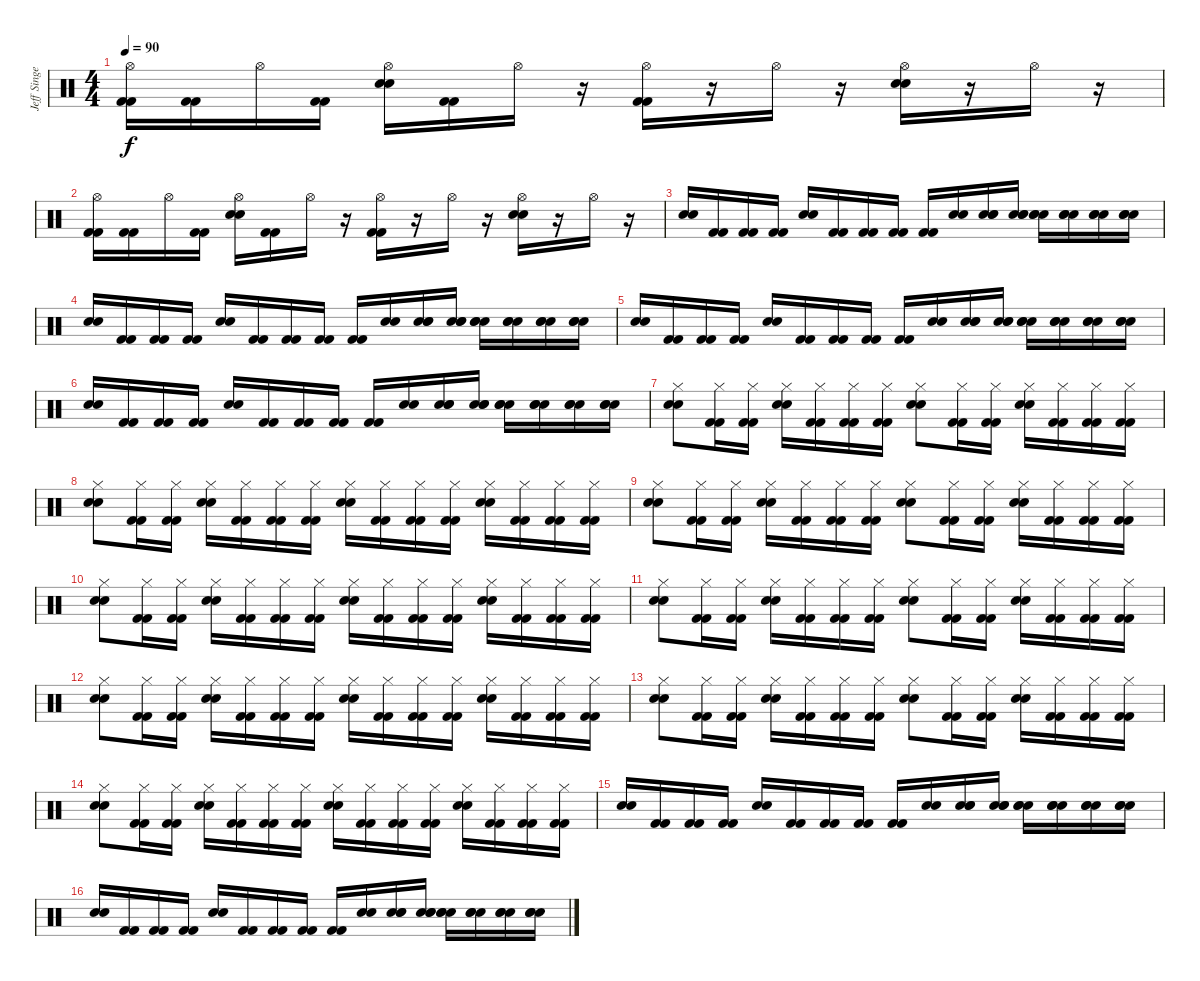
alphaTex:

\track ("Jeff Singer" "Jeff Singe") {instrument percussion}
\staff {score}
\articulation defaults
\ts (4 4)
\tempo 90
\clef neutral
\ks c
("Hi-Hat (open)" "Kick (hit) 2" "Kick (hit) 2").16{dy f} ("Kick (hit) 2" "Kick (hit) 2").16 "Hi-Hat (open)".16 ("Kick (hit) 2" "Kick (hit) 2").16 ("Hi-Hat (open)" "Snare (hit) 2" "Snare (hit) 2").16 ("Kick (hit) 2" "Kick (hit) 2").16 "Hi-Hat (open)".16 r.16 ("Hi-Hat (open)" "Kick (hit) 2" "Kick (hit) 2").16 r.16 "Hi-Hat (open)".16 r.16 ("Hi-Hat (open)" "Snare (hit) 2" "Snare (hit) 2").16 r.16 "Hi-Hat (open)".16 r.16 |
("Hi-Hat (open)" "Kick (hit) 2" "Kick (hit) 2").16 ("Kick (hit) 2" "Kick (hit) 2").16 "Hi-Hat (open)".16 ("Kick (hit) 2" "Kick (hit) 2").16 ("Hi-Hat (open)" "Snare (hit) 2" "Snare (hit) 2").16 ("Kick (hit) 2" "Kick (hit) 2").16 "Hi-Hat (open)".16 r.16 ("Hi-Hat (open)" "Kick (hit) 2" "Kick (hit) 2").16 r.16 "Hi-Hat (open)".16 r.16 ("Hi-Hat (open)" "Snare (hit) 2" "Snare (hit) 2").16 r.16 "Hi-Hat (open)".16 r.16 |
("Snare (hit) 2" "Snare (hit) 2").16 ("Kick (hit) 2" "Kick (hit) 2").16 ("Kick (hit) 2" "Kick (hit) 2").16 ("Kick (hit) 2" "Kick (hit) 2").16 ("Snare (hit) 2" "Snare (hit) 2").16 ("Kick (hit) 2" "Kick (hit) 2").16 ("Kick (hit) 2" "Kick (hit) 2").16 ("Kick (hit) 2" "Kick (hit) 2").16 ("Kick (hit) 2" "Kick (hit) 2").16 ("Snare (hit) 2" "Snare (hit) 2").16 ("Snare (hit) 2" "Snare (hit) 2" "Snare (hit) 2").16 ("Snare (hit) 2" "Snare (hit) 2" "Snare (hit) 2").16 ("Snare (hit) 2" "Snare (hit) 2" "Snare (hit) 2").16 ("Snare (hit) 2" "Snare (hit) 2" "Snare (hit) 2").16 ("Snare (hit) 2" "Snare (hit) 2" "Snare (hit) 2").16 ("Snare (hit) 2" "Snare (hit) 2" "Snare (hit) 2").16 |
("Snare (hit) 2" "Snare (hit) 2").16 ("Kick (hit) 2" "Kick (hit) 2").16 ("Kick (hit) 2" "Kick (hit) 2").16 ("Kick (hit) 2" "Kick (hit) 2").16 ("Snare (hit) 2" "Snare (hit) 2").16 ("Kick (hit) 2" "Kick (hit) 2").16 ("Kick (hit) 2" "Kick (hit) 2").16 ("Kick (hit) 2" "Kick (hit) 2").16 ("Kick (hit) 2" "Kick (hit) 2").16 ("Snare (hit) 2" "Snare (hit) 2").16 ("Snare (hit) 2" "Snare (hit) 2" "Snare (hit) 2").16 ("Snare (hit) 2" "Snare (hit) 2" "Snare (hit) 2").16 ("Snare (hit) 2" "Snare (hit) 2" "Snare (hit) 2").16 ("Snare (hit) 2" "Snare (hit) 2" "Snare (hit) 2").16 ("Snare (hit) 2" "Snare (hit) 2" "Snare (hit) 2").16 ("Snare (hit) 2" "Snare (hit) 2" "Snare (hit) 2").16 |
("Snare (hit) 2" "Snare (hit) 2").16 ("Kick (hit) 2" "Kick (hit) 2").16 ("Kick (hit) 2" "Kick (hit) 2").16 ("Kick (hit) 2" "Kick (hit) 2").16 ("Snare (hit) 2" "Snare (hit) 2").16 ("Kick (hit) 2" "Kick (hit) 2").16 ("Kick (hit) 2" "Kick (hit) 2").16 ("Kick (hit) 2" "Kick (hit) 2").16 ("Kick (hit) 2" "Kick (hit) 2").16 ("Snare (hit) 2" "Snare (hit) 2").16 ("Snare (hit) 2" "Snare (hit) 2" "Snare (hit) 2").16 ("Snare (hit) 2" "Snare (hit) 2" "Snare (hit) 2").16 ("Snare (hit) 2" "Snare (hit) 2" "Snare (hit) 2").16 ("Snare (hit) 2" "Snare (hit) 2" "Snare (hit) 2").16 ("Snare (hit) 2" "Snare (hit) 2" "Snare (hit) 2").16 ("Snare (hit) 2" "Snare (hit) 2" "Snare (hit) 2").16 |
("Snare (hit) 2" "Snare (hit) 2").16 ("Kick (hit) 2" "Kick (hit) 2").16 ("Kick (hit) 2" "Kick (hit) 2").16 ("Kick (hit) 2" "Kick (hit) 2").16 ("Snare (hit) 2" "Snare (hit) 2").16 ("Kick (hit) 2" "Kick (hit) 2").16 ("Kick (hit) 2" "Kick (hit) 2").16 ("Kick (hit) 2" "Kick (hit) 2").16 ("Kick (hit) 2" "Kick (hit) 2").16 ("Snare (hit) 2" "Snare (hit) 2").16 ("Snare (hit) 2" "Snare (hit) 2" "Snare (hit) 2").16 ("Snare (hit) 2" "Snare (hit) 2" "Snare (hit) 2").16 ("Snare (hit) 2" "Snare (hit) 2" "Snare (hit) 2").16 ("Snare (hit) 2" "Snare (hit) 2" "Snare (hit) 2").16 ("Snare (hit) 2" "Snare (hit) 2" "Snare (hit) 2").16 ("Snare (hit) 2" "Snare (hit) 2" "Snare (hit) 2").16 |
("Hi-Hat (closed)" "Snare (hit) 2" "Snare (hit) 2").8 ("Hi-Hat (closed)" "Kick (hit) 2" "Kick (hit) 2").16 ("Hi-Hat (closed)" "Kick (hit) 2" "Kick (hit) 2").16 ("Hi-Hat (closed)" "Snare (hit) 2" "Snare (hit) 2").16 ("Hi-Hat (closed)" "Kick (hit) 2" "Kick (hit) 2").16 ("Hi-Hat (closed)" "Kick (hit) 2" "Kick (hit) 2").16 ("Hi-Hat (closed)" "Kick (hit) 2" "Kick (hit) 2").16 ("Hi-Hat (closed)" "Snare (hit) 2" "Snare (hit) 2").8 ("Hi-Hat (closed)" "Kick (hit) 2" "Kick (hit) 2").16 ("Hi-Hat (closed)" "Kick (hit) 2" "Kick (hit) 2").16 ("Hi-Hat (closed)" "Snare (hit) 2" "Snare (hit) 2").16 ("Hi-Hat (closed)" "Kick (hit) 2" "Kick (hit) 2").16 ("Hi-Hat (closed)" "Kick (hit) 2" "Kick (hit) 2").16 ("Hi-Hat (closed)" "Kick (hit) 2" "Kick (hit) 2").16 |
("Hi-Hat (closed)" "Snare (hit) 2" "Snare (hit) 2").8 ("Hi-Hat (closed)" "Kick (hit) 2" "Kick (hit) 2").16 ("Hi-Hat (closed)" "Kick (hit) 2" "Kick (hit) 2").16 ("Hi-Hat (closed)" "Snare (hit) 2" "Snare (hit) 2").16 ("Hi-Hat (closed)" "Kick (hit) 2" "Kick (hit) 2").16 ("Hi-Hat (closed)" "Kick (hit) 2" "Kick (hit) 2").16 ("Hi-Hat (closed)" "Kick (hit) 2" "Kick (hit) 2").16 ("Hi-Hat (closed)" "Snare (hit) 2" "Snare (hit) 2").16 ("Hi-Hat (closed)" "Kick (hit) 2" "Kick (hit) 2").16 ("Hi-Hat (closed)" "Kick (hit) 2" "Kick (hit) 2").16 ("Hi-Hat (closed)" "Kick (hit) 2" "Kick (hit) 2").16 ("Hi-Hat (closed)" "Snare (hit) 2" "Snare (hit) 2").16 ("Hi-Hat (closed)" "Kick (hit) 2" "Kick (hit) 2").16 ("Hi-Hat (closed)" "Kick (hit) 2" "Kick (hit) 2").16 ("Hi-Hat (closed)" "Kick (hit) 2" "Kick (hit) 2").16 |
("Hi-Hat (closed)" "Snare (hit) 2" "Snare (hit) 2").8 ("Hi-Hat (closed)" "Kick (hit) 2" "Kick (hit) 2").16 ("Hi-Hat (closed)" "Kick (hit) 2" "Kick (hit) 2").16 ("Hi-Hat (closed)" "Snare (hit) 2" "Snare (hit) 2").16 ("Hi-Hat (closed)" "Kick (hit) 2" "Kick (hit) 2").16 ("Hi-Hat (closed)" "Kick (hit) 2" "Kick (hit) 2").16 ("Hi-Hat (closed)" "Kick (hit) 2" "Kick (hit) 2").16 ("Hi-Hat (closed)" "Snare (hit) 2" "Snare (hit) 2").8 ("Hi-Hat (closed)" "Kick (hit) 2" "Kick (hit) 2").16 ("Hi-Hat (closed)" "Kick (hit) 2" "Kick (hit) 2").16 ("Hi-Hat (closed)" "Snare (hit) 2" "Snare (hit) 2").16 ("Hi-Hat (closed)" "Kick (hit) 2" "Kick (hit) 2").16 ("Hi-Hat (closed)" "Kick (hit) 2" "Kick (hit) 2").16 ("Hi-Hat (closed)" "Kick (hit) 2" "Kick (hit) 2").16 |
("Hi-Hat (closed)" "Snare (hit) 2" "Snare (hit) 2").8 ("Hi-Hat (closed)" "Kick (hit) 2" "Kick (hit) 2").16 ("Hi-Hat (closed)" "Kick (hit) 2" "Kick (hit) 2").16 ("Hi-Hat (closed)" "Snare (hit) 2" "Snare (hit) 2").16 ("Hi-Hat (closed)" "Kick (hit) 2" "Kick (hit) 2").16 ("Hi-Hat (closed)" "Kick (hit) 2" "Kick (hit) 2").16 ("Hi-Hat (closed)" "Kick (hit) 2" "Kick (hit) 2").16 ("Hi-Hat (closed)" "Snare (hit) 2" "Snare (hit) 2").16 ("Hi-Hat (closed)" "Kick (hit) 2" "Kick (hit) 2").16 ("Hi-Hat (closed)" "Kick (hit) 2" "Kick (hit) 2").16 ("Hi-Hat (closed)" "Kick (hit) 2" "Kick (hit) 2").16 ("Hi-Hat (closed)" "Snare (hit) 2" "Snare (hit) 2").16 ("Hi-Hat (closed)" "Kick (hit) 2" "Kick (hit) 2").16 ("Hi-Hat (closed)" "Kick (hit) 2" "Kick (hit) 2").16 ("Hi-Hat (closed)" "Kick (hit) 2" "Kick (hit) 2").16 |
("Hi-Hat (closed)" "Snare (hit) 2" "Snare (hit) 2").8 ("Hi-Hat (closed)" "Kick (hit) 2" "Kick (hit) 2").16 ("Hi-Hat (closed)" "Kick (hit) 2" "Kick (hit) 2").16 ("Hi-Hat (closed)" "Snare (hit) 2" "Snare (hit) 2").16 ("Hi-Hat (closed)" "Kick (hit) 2" "Kick (hit) 2").16 ("Hi-Hat (closed)" "Kick (hit) 2" "Kick (hit) 2").16 ("Hi-Hat (closed)" "Kick (hit) 2" "Kick (hit) 2").16 ("Hi-Hat (closed)" "Snare (hit) 2" "Snare (hit) 2").8 ("Hi-Hat (closed)" "Kick (hit) 2" "Kick (hit) 2").16 ("Hi-Hat (closed)" "Kick (hit) 2" "Kick (hit) 2").16 ("Hi-Hat (closed)" "Snare (hit) 2" "Snare (hit) 2").16 ("Hi-Hat (closed)" "Kick (hit) 2" "Kick (hit) 2").16 ("Hi-Hat (closed)" "Kick (hit) 2" "Kick (hit) 2").16 ("Hi-Hat (closed)" "Kick (hit) 2" "Kick (hit) 2").16 |
("Hi-Hat (closed)" "Snare (hit) 2" "Snare (hit) 2").8 ("Hi-Hat (closed)" "Kick (hit) 2" "Kick (hit) 2").16 ("Hi-Hat (closed)" "Kick (hit) 2" "Kick (hit) 2").16 ("Hi-Hat (closed)" "Snare (hit) 2" "Snare (hit) 2").16 ("Hi-Hat (closed)" "Kick (hit) 2" "Kick (hit) 2").16 ("Hi-Hat (closed)" "Kick (hit) 2" "Kick (hit) 2").16 ("Hi-Hat (closed)" "Kick (hit) 2" "Kick (hit) 2").16 ("Hi-Hat (closed)" "Snare (hit) 2" "Snare (hit) 2").16 ("Hi-Hat (closed)" "Kick (hit) 2" "Kick (hit) 2").16 ("Hi-Hat (closed)" "Kick (hit) 2" "Kick (hit) 2").16 ("Hi-Hat (closed)" "Kick (hit) 2" "Kick (hit) 2").16 ("Hi-Hat (closed)" "Snare (hit) 2" "Snare (hit) 2").16 ("Hi-Hat (closed)" "Kick (hit) 2" "Kick (hit) 2").16 ("Hi-Hat (closed)" "Kick (hit) 2" "Kick (hit) 2").16 ("Hi-Hat (closed)" "Kick (hit) 2" "Kick (hit) 2").16 |
("Hi-Hat (closed)" "Snare (hit) 2" "Snare (hit) 2").8 ("Hi-Hat (closed)" "Kick (hit) 2" "Kick (hit) 2").16 ("Hi-Hat (closed)" "Kick (hit) 2" "Kick (hit) 2").16 ("Hi-Hat (closed)" "Snare (hit) 2" "Snare (hit) 2").16 ("Hi-Hat (closed)" "Kick (hit) 2" "Kick (hit) 2").16 ("Hi-Hat (closed)" "Kick (hit) 2" "Kick (hit) 2").16 ("Hi-Hat (closed)" "Kick (hit) 2" "Kick (hit) 2").16 ("Hi-Hat (closed)" "Snare (hit) 2" "Snare (hit) 2").8 ("Hi-Hat (closed)" "Kick (hit) 2" "Kick (hit) 2").16 ("Hi-Hat (closed)" "Kick (hit) 2" "Kick (hit) 2").16 ("Hi-Hat (closed)" "Snare (hit) 2" "Snare (hit) 2").16 ("Hi-Hat (closed)" "Kick (hit) 2" "Kick (hit) 2").16 ("Hi-Hat (closed)" "Kick (hit) 2" "Kick (hit) 2").16 ("Hi-Hat (closed)" "Kick (hit) 2" "Kick (hit) 2").16 |
("Hi-Hat (closed)" "Snare (hit) 2" "Snare (hit) 2").8 ("Hi-Hat (closed)" "Kick (hit) 2" "Kick (hit) 2").16 ("Hi-Hat (closed)" "Kick (hit) 2" "Kick (hit) 2").16 ("Hi-Hat (closed)" "Snare (hit) 2" "Snare (hit) 2").16 ("Hi-Hat (closed)" "Kick (hit) 2" "Kick (hit) 2").16 ("Hi-Hat (closed)" "Kick (hit) 2" "Kick (hit) 2").16 ("Hi-Hat (closed)" "Kick (hit) 2" "Kick (hit) 2").16 ("Hi-Hat (closed)" "Snare (hit) 2" "Snare (hit) 2").16 ("Hi-Hat (closed)" "Kick (hit) 2" "Kick (hit) 2").16 ("Hi-Hat (closed)" "Kick (hit) 2" "Kick (hit) 2").16 ("Hi-Hat (closed)" "Kick (hit) 2" "Kick (hit) 2").16 ("Hi-Hat (closed)" "Snare (hit) 2" "Snare (hit) 2").16 ("Hi-Hat (closed)" "Kick (hit) 2" "Kick (hit) 2").16 ("Hi-Hat (closed)" "Kick (hit) 2" "Kick (hit) 2").16 ("Hi-Hat (closed)" "Kick (hit) 2" "Kick (hit) 2").16 |
("Snare (hit) 2" "Snare (hit) 2").16 ("Kick (hit) 2" "Kick (hit) 2").16 ("Kick (hit) 2" "Kick (hit) 2").16 ("Kick (hit) 2" "Kick (hit) 2").16 ("Snare (hit) 2" "Snare (hit) 2").16 ("Kick (hit) 2" "Kick (hit) 2").16 ("Kick (hit) 2" "Kick (hit) 2").16 ("Kick (hit) 2" "Kick (hit) 2").16 ("Kick (hit) 2" "Kick (hit) 2").16 ("Snare (hit) 2" "Snare (hit) 2").16 ("Snare (hit) 2" "Snare (hit) 2" "Snare (hit) 2").16 ("Snare (hit) 2" "Snare (hit) 2" "Snare (hit) 2").16 ("Snare (hit) 2" "Snare (hit) 2" "Snare (hit) 2").16 ("Snare (hit) 2" "Snare (hit) 2" "Snare (hit) 2").16 ("Snare (hit) 2" "Snare (hit) 2" "Snare (hit) 2").16 ("Snare (hit) 2" "Snare (hit) 2" "Snare (hit) 2").16 |
("Snare (hit) 2" "Snare (hit) 2").16 ("Kick (hit) 2" "Kick (hit) 2").16 ("Kick (hit) 2" "Kick (hit) 2").16 ("Kick (hit) 2" "Kick (hit) 2").16 ("Snare (hit) 2" "Snare (hit) 2").16 ("Kick (hit) 2" "Kick (hit) 2").16 ("Kick (hit) 2" "Kick (hit) 2").16 ("Kick (hit) 2" "Kick (hit) 2").16 ("Kick (hit) 2" "Kick (hit) 2").16 ("Snare (hit) 2" "Snare (hit) 2").16 ("Snare (hit) 2" "Snare (hit) 2" "Snare (hit) 2").16 ("Snare (hit) 2" "Snare (hit) 2" "Snare (hit) 2").16 ("Snare (hit) 2" "Snare (hit) 2" "Snare (hit) 2").16 ("Snare (hit) 2" "Snare (hit) 2" "Snare (hit) 2").16 ("Snare (hit) 2" "Snare (hit) 2" "Snare (hit) 2").16 ("Snare (hit) 2" "Snare (hit) 2" "Snare (hit) 2").16
